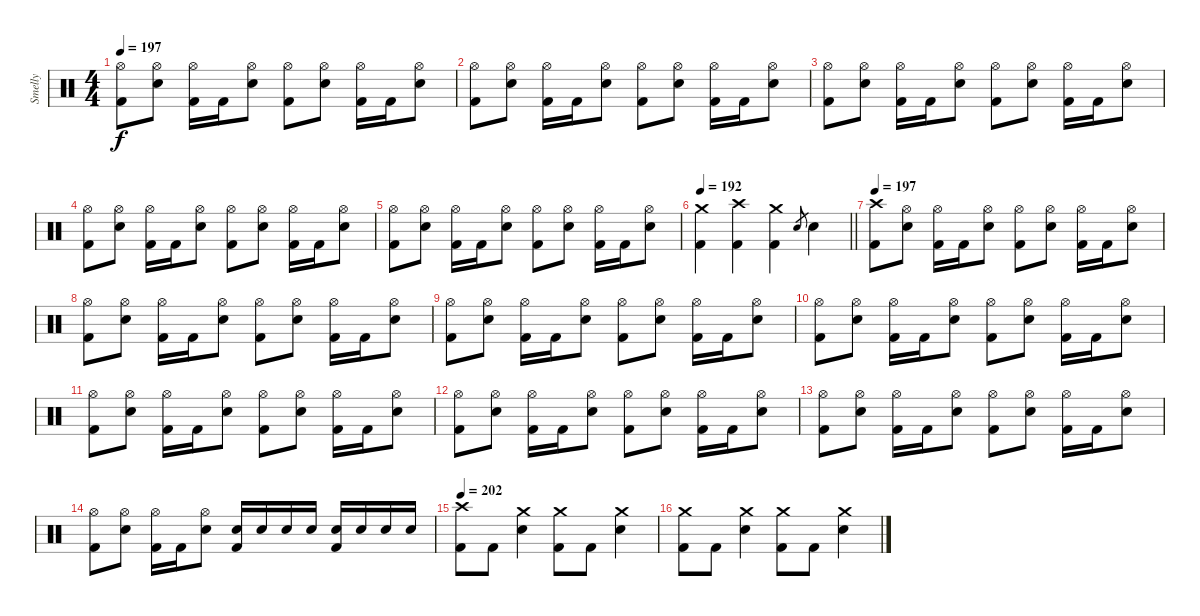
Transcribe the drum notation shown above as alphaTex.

\track ("Smelly" "Smelly") {instrument percussion}
\staff {score}
\articulation defaults
\ts (4 4)
\tempo 197
\clef neutral
\ks c
("Hi-Hat (open)" "Kick (hit) 2").8{dy f} ("Hi-Hat (open)" "Electric Snare (hit)").8 ("Hi-Hat (open)" "Kick (hit) 2").16 "Kick (hit) 2".16 ("Hi-Hat (open)" "Electric Snare (hit)").8 ("Hi-Hat (open)" "Kick (hit) 2").8 ("Hi-Hat (open)" "Electric Snare (hit)").8 ("Hi-Hat (open)" "Kick (hit) 2").16 "Kick (hit) 2".16 ("Hi-Hat (open)" "Electric Snare (hit)").8 |
("Hi-Hat (open)" "Kick (hit) 2").8 ("Hi-Hat (open)" "Electric Snare (hit)").8 ("Hi-Hat (open)" "Kick (hit) 2").16 "Kick (hit) 2".16 ("Hi-Hat (open)" "Electric Snare (hit)").8 ("Hi-Hat (open)" "Kick (hit) 2").8 ("Hi-Hat (open)" "Electric Snare (hit)").8 ("Hi-Hat (open)" "Kick (hit) 2").16 "Kick (hit) 2".16 ("Hi-Hat (open)" "Electric Snare (hit)").8 |
("Hi-Hat (open)" "Kick (hit) 2").8 ("Hi-Hat (open)" "Electric Snare (hit)").8 ("Hi-Hat (open)" "Kick (hit) 2").16 "Kick (hit) 2".16 ("Hi-Hat (open)" "Electric Snare (hit)").8 ("Hi-Hat (open)" "Kick (hit) 2").8 ("Hi-Hat (open)" "Electric Snare (hit)").8 ("Hi-Hat (open)" "Kick (hit) 2").16 "Kick (hit) 2".16 ("Hi-Hat (open)" "Electric Snare (hit)").8 |
("Hi-Hat (open)" "Kick (hit) 2").8 ("Hi-Hat (open)" "Electric Snare (hit)").8 ("Hi-Hat (open)" "Kick (hit) 2").16 "Kick (hit) 2".16 ("Hi-Hat (open)" "Electric Snare (hit)").8 ("Hi-Hat (open)" "Kick (hit) 2").8 ("Hi-Hat (open)" "Electric Snare (hit)").8 ("Hi-Hat (open)" "Kick (hit) 2").16 "Kick (hit) 2".16 ("Hi-Hat (open)" "Electric Snare (hit)").8 |
("Hi-Hat (open)" "Kick (hit) 2").8 ("Hi-Hat (open)" "Electric Snare (hit)").8 ("Hi-Hat (open)" "Kick (hit) 2").16 "Kick (hit) 2".16 ("Hi-Hat (open)" "Electric Snare (hit)").8 ("Hi-Hat (open)" "Kick (hit) 2").8 ("Hi-Hat (open)" "Electric Snare (hit)").8 ("Hi-Hat (open)" "Kick (hit) 2").16 "Kick (hit) 2".16 ("Hi-Hat (open)" "Electric Snare (hit)").8 |
\tempo 192
\barLineRight lightlight
("Crash medium (hit)" "Kick (hit) 2").4 ("Crash high (hit)" "Kick (hit) 2").4 ("Crash medium (hit)" "Kick (hit) 2").4 "Electric Snare (hit)".8{gr} "Electric Snare (hit)".4 |
\section ("" "")
\tempo 197
("Crash high (hit)" "Kick (hit) 2").8 ("Hi-Hat (open)" "Electric Snare (hit)").8 ("Hi-Hat (open)" "Kick (hit) 2").16 "Kick (hit) 2".16 ("Hi-Hat (open)" "Electric Snare (hit)").8 ("Hi-Hat (open)" "Kick (hit) 2").8 ("Hi-Hat (open)" "Electric Snare (hit)").8 ("Hi-Hat (open)" "Kick (hit) 2").16 "Kick (hit) 2".16 ("Hi-Hat (open)" "Electric Snare (hit)").8 |
("Hi-Hat (open)" "Kick (hit) 2").8 ("Hi-Hat (open)" "Electric Snare (hit)").8 ("Hi-Hat (open)" "Kick (hit) 2").16 "Kick (hit) 2".16 ("Hi-Hat (open)" "Electric Snare (hit)").8 ("Hi-Hat (open)" "Kick (hit) 2").8 ("Hi-Hat (open)" "Electric Snare (hit)").8 ("Hi-Hat (open)" "Kick (hit) 2").16 "Kick (hit) 2".16 ("Hi-Hat (open)" "Electric Snare (hit)").8 |
("Hi-Hat (open)" "Kick (hit) 2").8 ("Hi-Hat (open)" "Electric Snare (hit)").8 ("Hi-Hat (open)" "Kick (hit) 2").16 "Kick (hit) 2".16 ("Hi-Hat (open)" "Electric Snare (hit)").8 ("Hi-Hat (open)" "Kick (hit) 2").8 ("Hi-Hat (open)" "Electric Snare (hit)").8 ("Hi-Hat (open)" "Kick (hit) 2").16 "Kick (hit) 2".16 ("Hi-Hat (open)" "Electric Snare (hit)").8 |
("Hi-Hat (open)" "Kick (hit) 2").8 ("Hi-Hat (open)" "Electric Snare (hit)").8 ("Hi-Hat (open)" "Kick (hit) 2").16 "Kick (hit) 2".16 ("Hi-Hat (open)" "Electric Snare (hit)").8 ("Hi-Hat (open)" "Kick (hit) 2").8 ("Hi-Hat (open)" "Electric Snare (hit)").8 ("Hi-Hat (open)" "Kick (hit) 2").16 "Kick (hit) 2".16 ("Hi-Hat (open)" "Electric Snare (hit)").8 |
("Hi-Hat (open)" "Kick (hit) 2").8 ("Hi-Hat (open)" "Electric Snare (hit)").8 ("Hi-Hat (open)" "Kick (hit) 2").16 "Kick (hit) 2".16 ("Hi-Hat (open)" "Electric Snare (hit)").8 ("Hi-Hat (open)" "Kick (hit) 2").8 ("Hi-Hat (open)" "Electric Snare (hit)").8 ("Hi-Hat (open)" "Kick (hit) 2").16 "Kick (hit) 2".16 ("Hi-Hat (open)" "Electric Snare (hit)").8 |
("Hi-Hat (open)" "Kick (hit) 2").8 ("Hi-Hat (open)" "Electric Snare (hit)").8 ("Hi-Hat (open)" "Kick (hit) 2").16 "Kick (hit) 2".16 ("Hi-Hat (open)" "Electric Snare (hit)").8 ("Hi-Hat (open)" "Kick (hit) 2").8 ("Hi-Hat (open)" "Electric Snare (hit)").8 ("Hi-Hat (open)" "Kick (hit) 2").16 "Kick (hit) 2".16 ("Hi-Hat (open)" "Electric Snare (hit)").8 |
("Hi-Hat (open)" "Kick (hit) 2").8 ("Hi-Hat (open)" "Electric Snare (hit)").8 ("Hi-Hat (open)" "Kick (hit) 2").16 "Kick (hit) 2".16 ("Hi-Hat (open)" "Electric Snare (hit)").8 ("Hi-Hat (open)" "Kick (hit) 2").8 ("Hi-Hat (open)" "Electric Snare (hit)").8 ("Hi-Hat (open)" "Kick (hit) 2").16 "Kick (hit) 2".16 ("Hi-Hat (open)" "Electric Snare (hit)").8 |
("Hi-Hat (open)" "Kick (hit) 2").8 ("Hi-Hat (open)" "Electric Snare (hit)").8 ("Hi-Hat (open)" "Kick (hit) 2").16 "Kick (hit) 2".16 ("Hi-Hat (open)" "Electric Snare (hit)").8 ("Electric Snare (hit)" "Kick (hit) 2").16 "Electric Snare (hit)".16 "Electric Snare (hit)".16 "Electric Snare (hit)".16 ("Electric Snare (hit)" "Kick (hit) 2").16 "Electric Snare (hit)".16 "Electric Snare (hit)".16 "Electric Snare (hit)".16 |
\tempo 202
("Crash high (hit)" "Kick (hit) 2").8 "Kick (hit) 2".8 ("Crash medium (hit)" "Electric Snare (hit)").4 ("Crash medium (hit)" "Kick (hit) 2").8 "Kick (hit) 2".8 ("Crash medium (hit)" "Electric Snare (hit)").4 |
("Crash medium (hit)" "Kick (hit) 2").8 "Kick (hit) 2".8 ("Crash medium (hit)" "Electric Snare (hit)").4 ("Crash medium (hit)" "Kick (hit) 2").8 "Kick (hit) 2".8 ("Crash medium (hit)" "Electric Snare (hit)").4
